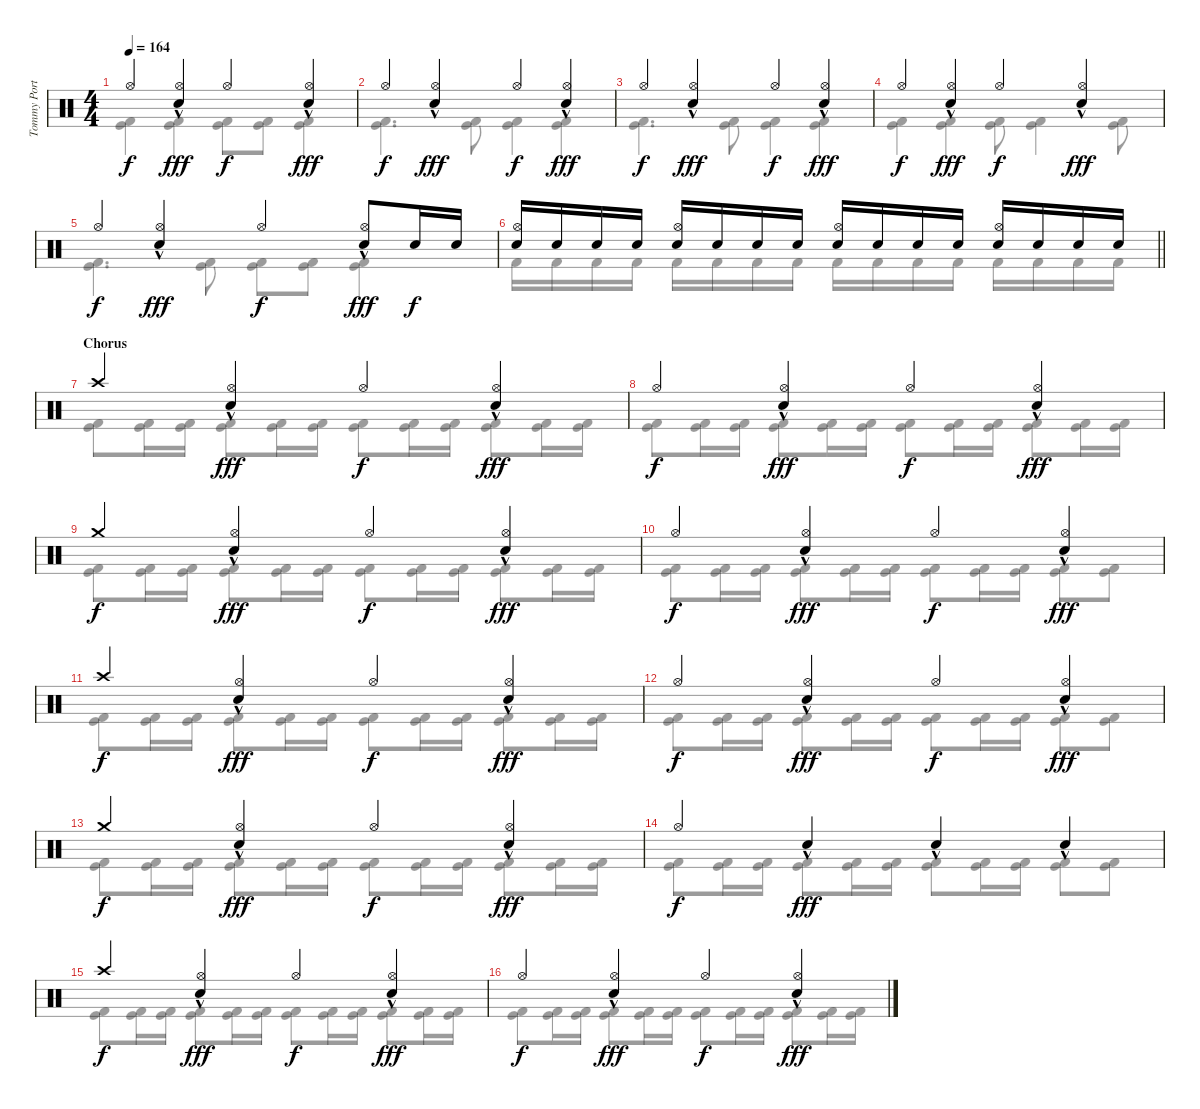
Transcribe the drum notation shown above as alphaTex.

\track ("Tommy Portimo" "Tommy Port") {instrument percussion}
\staff {score}
\articulation defaults
\voice
\ts (4 4)
\tempo 164
\clef neutral
\ks c "Hi-Hat (open)".4{dy f}
("Snare (hit) 2"{hac} "Hi-Hat (open)").4{dy fff} "Hi-Hat (open)".4{dy f} ("Snare (hit) 2"{hac} "Hi-Hat (open)").4{dy fff} |
"Hi-Hat (open)".4{dy f} ("Snare (hit) 2"{hac} "Hi-Hat (open)").4{dy fff} "Hi-Hat (open)".4{dy f} ("Snare (hit) 2"{hac} "Hi-Hat (open)").4{dy fff} |
"Hi-Hat (open)".4{dy f} ("Snare (hit) 2"{hac} "Hi-Hat (open)").4{dy fff} "Hi-Hat (open)".4{dy f} ("Snare (hit) 2"{hac} "Hi-Hat (open)").4{dy fff} |
"Hi-Hat (open)".4{dy f} ("Snare (hit) 2"{hac} "Hi-Hat (open)").4{dy fff} "Hi-Hat (open)".4{dy f} ("Snare (hit) 2"{hac} "Hi-Hat (open)").4{dy fff} |
"Hi-Hat (open)".4{dy f} ("Snare (hit) 2"{hac} "Hi-Hat (open)").4{dy fff} "Hi-Hat (open)".4{dy f} ("Snare (hit) 2"{hac} "Hi-Hat (open)").8{dy fff} "Snare (hit) 2".16{dy f} "Snare (hit) 2".16 |
\barLineRight lightlight
("Snare (hit) 2" "Hi-Hat (open)").16 "Snare (hit) 2".16 "Snare (hit) 2".16 "Snare (hit) 2".16 ("Snare (hit) 2" "Hi-Hat (open)").16 "Snare (hit) 2".16 "Snare (hit) 2".16 "Snare (hit) 2".16 ("Snare (hit) 2" "Hi-Hat (open)").16 "Snare (hit) 2".16 "Snare (hit) 2".16 "Snare (hit) 2".16 ("Snare (hit) 2" "Hi-Hat (open)").16 "Snare (hit) 2".16 "Snare (hit) 2".16 "Snare (hit) 2".16 |
\section ("" "Chorus")
"Crash high (hit)".4 ("Snare (hit) 2"{hac} "Hi-Hat (open)").4{dy fff} "Hi-Hat (open)".4{dy f} ("Snare (hit) 2"{hac} "Hi-Hat (open)").4{dy fff} |
"Hi-Hat (open)".4{dy f} ("Snare (hit) 2"{hac} "Hi-Hat (open)").4{dy fff} "Hi-Hat (open)".4{dy f} ("Snare (hit) 2"{hac} "Hi-Hat (open)").4{dy fff} |
"Crash medium (hit)".4{dy f} ("Snare (hit) 2"{hac} "Hi-Hat (open)").4{dy fff} "Hi-Hat (open)".4{dy f} ("Snare (hit) 2"{hac} "Hi-Hat (open)").4{dy fff} |
"Hi-Hat (open)".4{dy f} ("Snare (hit) 2"{hac} "Hi-Hat (open)").4{dy fff} "Hi-Hat (open)".4{dy f} ("Snare (hit) 2"{hac} "Hi-Hat (open)").4{dy fff} |
"Crash high (hit)".4{dy f} ("Snare (hit) 2"{hac} "Hi-Hat (open)").4{dy fff} "Hi-Hat (open)".4{dy f} ("Snare (hit) 2"{hac} "Hi-Hat (open)").4{dy fff} |
"Hi-Hat (open)".4{dy f} ("Snare (hit) 2"{hac} "Hi-Hat (open)").4{dy fff} "Hi-Hat (open)".4{dy f} ("Snare (hit) 2"{hac} "Hi-Hat (open)").4{dy fff} |
"Crash medium (hit)".4{dy f} ("Snare (hit) 2"{hac} "Hi-Hat (open)").4{dy fff} "Hi-Hat (open)".4{dy f} ("Snare (hit) 2"{hac} "Hi-Hat (open)").4{dy fff} |
"Hi-Hat (open)".4{dy f} "Snare (hit) 2"{hac}.4{dy fff} "Snare (hit) 2"{hac}.4 "Snare (hit) 2"{hac}.4 |
"Crash high (hit)".4{dy f} ("Snare (hit) 2"{hac} "Hi-Hat (open)").4{dy fff} "Hi-Hat (open)".4{dy f} ("Snare (hit) 2"{hac} "Hi-Hat (open)").4{dy fff} |
"Hi-Hat (open)".4{dy f} ("Snare (hit) 2"{hac} "Hi-Hat (open)").4{dy fff} "Hi-Hat (open)".4{dy f} ("Snare (hit) 2"{hac} "Hi-Hat (open)").4{dy fff}
\voice
\clef neutral
\ottava regular
\simile none
\ks c
("Kick (hit)" "Kick (hit) 2").4{dy f} ("Kick (hit)" "Kick (hit) 2").4 ("Kick (hit)" "Kick (hit) 2").8 ("Kick (hit)" "Kick (hit) 2").8 ("Kick (hit)" "Kick (hit) 2").4 |
("Kick (hit)" "Kick (hit) 2").4{d} ("Kick (hit)" "Kick (hit) 2").8 ("Kick (hit)" "Kick (hit) 2").4 ("Kick (hit)" "Kick (hit) 2").4 |
("Kick (hit)" "Kick (hit) 2").4{d} ("Kick (hit)" "Kick (hit) 2").8 ("Kick (hit)" "Kick (hit) 2").4 ("Kick (hit)" "Kick (hit) 2").4 |
("Kick (hit)" "Kick (hit) 2").4 ("Kick (hit)" "Kick (hit) 2").4 ("Kick (hit)" "Kick (hit) 2").8 ("Kick (hit)" "Kick (hit) 2").4 ("Kick (hit)" "Kick (hit) 2").8 |
("Kick (hit)" "Kick (hit) 2").4{d} ("Kick (hit)" "Kick (hit) 2").8 ("Kick (hit)" "Kick (hit) 2").8 ("Kick (hit)" "Kick (hit) 2").8 ("Kick (hit)" "Kick (hit) 2").4 |
\barLineRight lightlight "Kick (hit) 2".16 "Kick (hit) 2".16 "Kick (hit) 2".16 "Kick (hit) 2".16 "Kick (hit) 2".16 "Kick (hit) 2".16 "Kick (hit) 2".16 "Kick (hit) 2".16 "Kick (hit) 2".16 "Kick (hit) 2".16 "Kick (hit) 2".16 "Kick (hit) 2".16 "Kick (hit) 2".16 "Kick (hit) 2".16 "Kick (hit) 2".16 "Kick (hit) 2".16
|
("Kick (hit)" "Kick (hit) 2").8 ("Kick (hit)" "Kick (hit) 2").16 ("Kick (hit)" "Kick (hit) 2").16 ("Kick (hit)" "Kick (hit) 2").8 ("Kick (hit)" "Kick (hit) 2").16 ("Kick (hit)" "Kick (hit) 2").16 ("Kick (hit)" "Kick (hit) 2").8 ("Kick (hit)" "Kick (hit) 2").16 ("Kick (hit)" "Kick (hit) 2").16 ("Kick (hit)" "Kick (hit) 2").8 ("Kick (hit)" "Kick (hit) 2").16 ("Kick (hit)" "Kick (hit) 2").16 |
("Kick (hit)" "Kick (hit) 2").8 ("Kick (hit)" "Kick (hit) 2").16 ("Kick (hit)" "Kick (hit) 2").16 ("Kick (hit)" "Kick (hit) 2").8 ("Kick (hit)" "Kick (hit) 2").16 ("Kick (hit)" "Kick (hit) 2").16 ("Kick (hit)" "Kick (hit) 2").8 ("Kick (hit)" "Kick (hit) 2").16 ("Kick (hit)" "Kick (hit) 2").16 ("Kick (hit)" "Kick (hit) 2").8 ("Kick (hit)" "Kick (hit) 2").16 ("Kick (hit)" "Kick (hit) 2").16 |
("Kick (hit)" "Kick (hit) 2").8 ("Kick (hit)" "Kick (hit) 2").16 ("Kick (hit)" "Kick (hit) 2").16 ("Kick (hit)" "Kick (hit) 2").8 ("Kick (hit)" "Kick (hit) 2").16 ("Kick (hit)" "Kick (hit) 2").16 ("Kick (hit)" "Kick (hit) 2").8 ("Kick (hit)" "Kick (hit) 2").16 ("Kick (hit)" "Kick (hit) 2").16 ("Kick (hit)" "Kick (hit) 2").8 ("Kick (hit)" "Kick (hit) 2").16 ("Kick (hit)" "Kick (hit) 2").16 |
("Kick (hit)" "Kick (hit) 2").8 ("Kick (hit)" "Kick (hit) 2").16 ("Kick (hit)" "Kick (hit) 2").16 ("Kick (hit)" "Kick (hit) 2").8 ("Kick (hit)" "Kick (hit) 2").16 ("Kick (hit)" "Kick (hit) 2").16 ("Kick (hit)" "Kick (hit) 2").8 ("Kick (hit)" "Kick (hit) 2").16 ("Kick (hit)" "Kick (hit) 2").16 ("Kick (hit)" "Kick (hit) 2").8 ("Kick (hit)" "Kick (hit) 2").8 |
("Kick (hit)" "Kick (hit) 2").8 ("Kick (hit)" "Kick (hit) 2").16 ("Kick (hit)" "Kick (hit) 2").16 ("Kick (hit)" "Kick (hit) 2").8 ("Kick (hit)" "Kick (hit) 2").16 ("Kick (hit)" "Kick (hit) 2").16 ("Kick (hit)" "Kick (hit) 2").8 ("Kick (hit)" "Kick (hit) 2").16 ("Kick (hit)" "Kick (hit) 2").16 ("Kick (hit)" "Kick (hit) 2").8 ("Kick (hit)" "Kick (hit) 2").16 ("Kick (hit)" "Kick (hit) 2").16 |
("Kick (hit)" "Kick (hit) 2").8 ("Kick (hit)" "Kick (hit) 2").16 ("Kick (hit)" "Kick (hit) 2").16 ("Kick (hit)" "Kick (hit) 2").8 ("Kick (hit)" "Kick (hit) 2").16 ("Kick (hit)" "Kick (hit) 2").16 ("Kick (hit)" "Kick (hit) 2").8 ("Kick (hit)" "Kick (hit) 2").16 ("Kick (hit)" "Kick (hit) 2").16 ("Kick (hit)" "Kick (hit) 2").8 ("Kick (hit)" "Kick (hit) 2").8 |
("Kick (hit)" "Kick (hit) 2").8 ("Kick (hit)" "Kick (hit) 2").16 ("Kick (hit)" "Kick (hit) 2").16 ("Kick (hit)" "Kick (hit) 2").8 ("Kick (hit)" "Kick (hit) 2").16 ("Kick (hit)" "Kick (hit) 2").16 ("Kick (hit)" "Kick (hit) 2").8 ("Kick (hit)" "Kick (hit) 2").16 ("Kick (hit)" "Kick (hit) 2").16 ("Kick (hit)" "Kick (hit) 2").8 ("Kick (hit)" "Kick (hit) 2").16 ("Kick (hit)" "Kick (hit) 2").16 |
("Kick (hit)" "Kick (hit) 2").8 ("Kick (hit)" "Kick (hit) 2").16 ("Kick (hit)" "Kick (hit) 2").16 ("Kick (hit)" "Kick (hit) 2").8 ("Kick (hit)" "Kick (hit) 2").16 ("Kick (hit)" "Kick (hit) 2").16 ("Kick (hit)" "Kick (hit) 2").8 ("Kick (hit)" "Kick (hit) 2").16 ("Kick (hit)" "Kick (hit) 2").16 ("Kick (hit)" "Kick (hit) 2").8 ("Kick (hit)" "Kick (hit) 2").8 |
("Kick (hit)" "Kick (hit) 2").8 ("Kick (hit)" "Kick (hit) 2").16 ("Kick (hit)" "Kick (hit) 2").16 ("Kick (hit)" "Kick (hit) 2").8 ("Kick (hit)" "Kick (hit) 2").16 ("Kick (hit)" "Kick (hit) 2").16 ("Kick (hit)" "Kick (hit) 2").8 ("Kick (hit)" "Kick (hit) 2").16 ("Kick (hit)" "Kick (hit) 2").16 ("Kick (hit)" "Kick (hit) 2").8 ("Kick (hit)" "Kick (hit) 2").16 ("Kick (hit)" "Kick (hit) 2").16 |
("Kick (hit)" "Kick (hit) 2").8 ("Kick (hit)" "Kick (hit) 2").16 ("Kick (hit)" "Kick (hit) 2").16 ("Kick (hit)" "Kick (hit) 2").8 ("Kick (hit)" "Kick (hit) 2").16 ("Kick (hit)" "Kick (hit) 2").16 ("Kick (hit)" "Kick (hit) 2").8 ("Kick (hit)" "Kick (hit) 2").16 ("Kick (hit)" "Kick (hit) 2").16 ("Kick (hit)" "Kick (hit) 2").8 ("Kick (hit)" "Kick (hit) 2").16 ("Kick (hit)" "Kick (hit) 2").16
